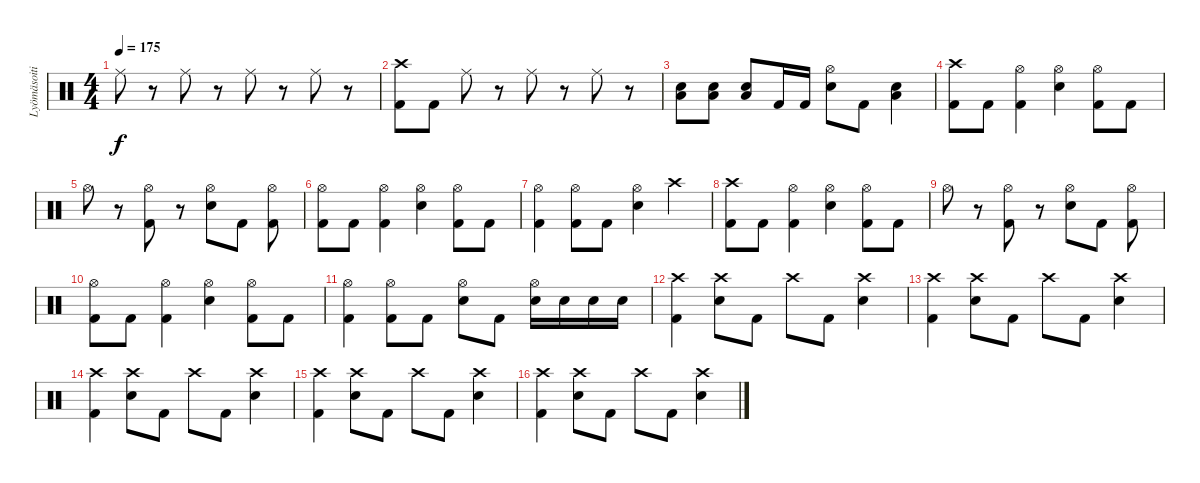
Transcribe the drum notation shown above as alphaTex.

\track ("Lyömäsoitin" "Lyömäsoiti") {instrument percussion}
\staff {score}
\articulation defaults
\ts (4 4)
\tempo 175
\clef neutral
\ks c "Ride (middle)".8{dy f}
r.8 "Ride (middle)".8 r.8 "Ride (middle)".8 r.8 "Ride (middle)".8 r.8 |
("Kick (hit) 2" "Crash high (hit)").8 "Kick (hit) 2".8 "Ride (middle)".8 r.8 "Ride (middle)".8 r.8 "Ride (middle)".8 r.8 |
("Electric Snare (hit)" "Low Floor Tom (hit)").8 ("Electric Snare (hit)" "Low Floor Tom (hit)").8 ("Electric Snare (hit)" "Low Floor Tom (hit)").8 "Kick (hit) 2".16 "Kick (hit) 2".16 ("Electric Snare (hit)" "Hi-Hat (open)").8 "Kick (hit) 2".8 ("Electric Snare (hit)" "Low Floor Tom (hit)").4 |
("Kick (hit) 2" "Crash high (hit)").8 "Kick (hit) 2".8 ("Kick (hit) 2" "Hi-Hat (open)").4 ("Electric Snare (hit)" "Hi-Hat (open)").4 ("Kick (hit) 2" "Hi-Hat (open)").8 "Kick (hit) 2".8 |
"Hi-Hat (open)".8 r.8 ("Kick (hit) 2" "Hi-Hat (open)").8 r.8 ("Electric Snare (hit)" "Hi-Hat (open)").8 "Kick (hit) 2".8 ("Kick (hit) 2" "Hi-Hat (open)").8 |
("Kick (hit) 2" "Hi-Hat (open)").8 "Kick (hit) 2".8 ("Kick (hit) 2" "Hi-Hat (open)").4 ("Electric Snare (hit)" "Hi-Hat (open)").4 ("Kick (hit) 2" "Hi-Hat (open)").8 "Kick (hit) 2".8 |
("Kick (hit) 2" "Hi-Hat (open)").4 ("Kick (hit) 2" "Hi-Hat (open)").8 "Kick (hit) 2".8 ("Electric Snare (hit)" "Hi-Hat (open)").4 "Crash high (hit)".4 |
("Kick (hit) 2" "Crash high (hit)").8 "Kick (hit) 2".8 ("Kick (hit) 2" "Hi-Hat (open)").4 ("Electric Snare (hit)" "Hi-Hat (open)").4 ("Kick (hit) 2" "Hi-Hat (open)").8 "Kick (hit) 2".8 |
"Hi-Hat (open)".8 r.8 ("Kick (hit) 2" "Hi-Hat (open)").8 r.8 ("Electric Snare (hit)" "Hi-Hat (open)").8 "Kick (hit) 2".8 ("Kick (hit) 2" "Hi-Hat (open)").8 |
("Kick (hit) 2" "Hi-Hat (open)").8 "Kick (hit) 2".8 ("Kick (hit) 2" "Hi-Hat (open)").4 ("Electric Snare (hit)" "Hi-Hat (open)").4 ("Kick (hit) 2" "Hi-Hat (open)").8 "Kick (hit) 2".8 |
("Kick (hit) 2" "Hi-Hat (open)").4 ("Kick (hit) 2" "Hi-Hat (open)").8 "Kick (hit) 2".8 ("Electric Snare (hit)" "Hi-Hat (open)").8 "Kick (hit) 2".8 ("Electric Snare (hit)" "Hi-Hat (open)").16 "Electric Snare (hit)".16 "Electric Snare (hit)".16 "Electric Snare (hit)".16 |
("Kick (hit) 2" "Crash high (hit)").4 ("Electric Snare (hit)" "Crash high (hit)").8 "Kick (hit) 2".8 "Crash high (hit)".8 "Kick (hit) 2".8 ("Electric Snare (hit)" "Crash high (hit)").4 |
("Kick (hit) 2" "Crash high (hit)").4 ("Electric Snare (hit)" "Crash high (hit)").8 "Kick (hit) 2".8 "Crash high (hit)".8 "Kick (hit) 2".8 ("Electric Snare (hit)" "Crash high (hit)").4 |
("Kick (hit) 2" "Crash high (hit)").4 ("Electric Snare (hit)" "Crash high (hit)").8 "Kick (hit) 2".8 "Crash high (hit)".8 "Kick (hit) 2".8 ("Electric Snare (hit)" "Crash high (hit)").4 |
("Kick (hit) 2" "Crash high (hit)").4 ("Electric Snare (hit)" "Crash high (hit)").8 "Kick (hit) 2".8 "Crash high (hit)".8 "Kick (hit) 2".8 ("Electric Snare (hit)" "Crash high (hit)").4 |
("Kick (hit) 2" "Crash high (hit)").4 ("Electric Snare (hit)" "Crash high (hit)").8 "Kick (hit) 2".8 "Crash high (hit)".8 "Kick (hit) 2".8 ("Electric Snare (hit)" "Crash high (hit)").4
